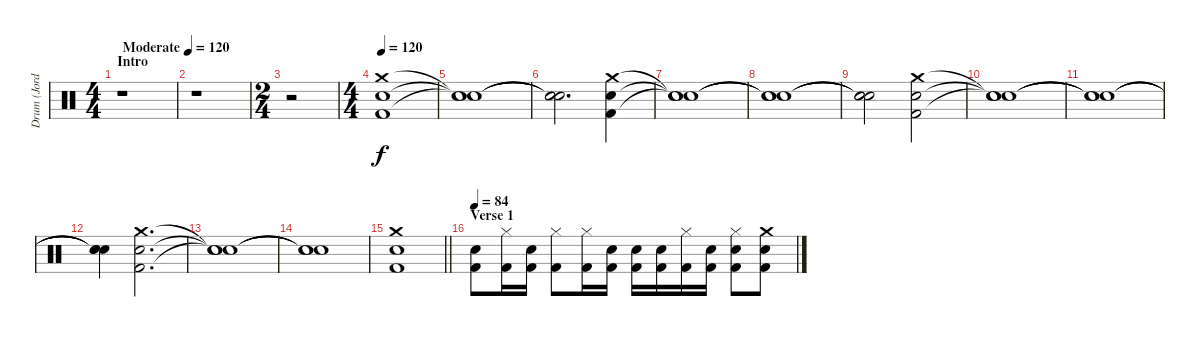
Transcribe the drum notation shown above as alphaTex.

\track ("Drum (Jordan)" "Drum (Jord") {instrument percussion}
\staff {score}
\articulation defaults
\ts (4 4)
\section ("" "Intro")
\tempo (120 "Moderate")
\tempo 84
\tempo (120 "Moderate")
\clef neutral
\ks c
r.1{dy f} |
r.1 |
\ts (2 4)
r.2 |
\ts (4 4)
\tempo 120
("Kick (hit) 2" "Electric Snare (hit)" "Crash medium (hit)").1 |
("Snare (hit)"{t} "Snare (hit)"{t} "Snare (hit)"{t}).1 |
("Snare (hit)"{t} "Snare (hit)"{t} "Snare (hit)"{t}).2{d} ("Kick (hit) 2" "Electric Snare (hit)" "Crash medium (hit)").4 |
("Snare (hit)"{t} "Snare (hit)"{t} "Snare (hit)"{t}).1 |
("Snare (hit)"{t} "Snare (hit)"{t} "Snare (hit)"{t}).1 |
("Snare (hit)"{t} "Snare (hit)"{t} "Snare (hit)"{t}).2 ("Kick (hit) 2" "Electric Snare (hit)" "Crash medium (hit)").2 |
("Snare (hit)"{t} "Snare (hit)"{t} "Snare (hit)"{t}).1 |
("Snare (hit)"{t} "Snare (hit)"{t} "Snare (hit)"{t}).1 |
("Snare (hit)"{t} "Snare (hit)"{t} "Snare (hit)"{t}).4 ("Kick (hit) 2" "Electric Snare (hit)" "Crash medium (hit)").2{d} |
("Snare (hit)"{t} "Snare (hit)"{t} "Snare (hit)"{t}).1 |
("Snare (hit)"{t} "Snare (hit)"{t} "Snare (hit)"{t}).1 |
\barLineRight lightlight
("Kick (hit) 2" "Electric Snare (hit)" "Crash medium (hit)").1 |
\section ("" "Verse 1")
\tempo 84
("Kick (hit) 2" "Electric Snare (hit)").8 ("Kick (hit) 2" "Hi-Hat (closed)").16 ("Kick (hit) 2" "Electric Snare (hit)").16 ("Kick (hit) 2" "Hi-Hat (closed)").8 ("Kick (hit) 2" "Hi-Hat (closed)").16 ("Kick (hit) 2" "Electric Snare (hit)").16 ("Kick (hit) 2" "Electric Snare (hit)").16 ("Kick (hit) 2" "Electric Snare (hit)").16 ("Kick (hit) 2" "Hi-Hat (closed)").16 ("Kick (hit) 2" "Electric Snare (hit)").16 ("Kick (hit) 2" "Electric Snare (hit)" "Hi-Hat (closed)").8 ("Kick (hit) 2" "Electric Snare (hit)" "Crash medium (hit)").8
